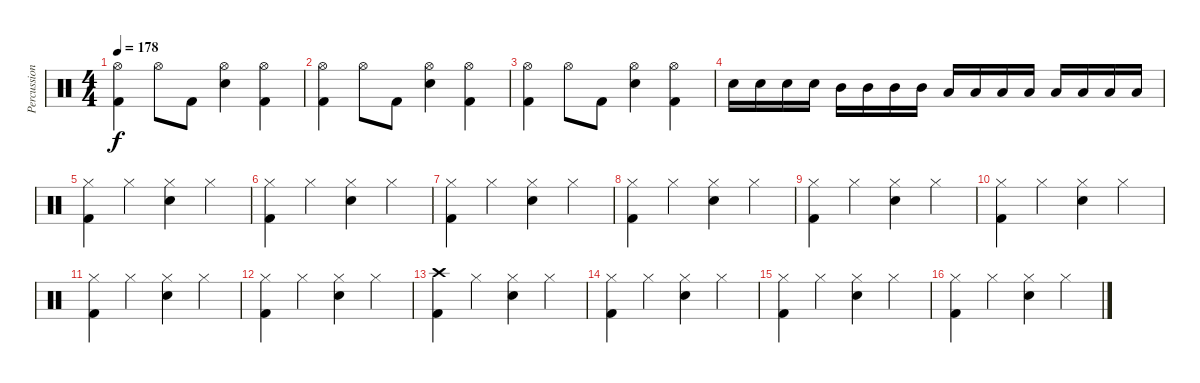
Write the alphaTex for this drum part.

\track ("Percussion" "Percussion") {instrument percussion}
\staff {score}
\articulation defaults
\ts (4 4)
\tempo 178
\clef neutral
\ks c
("Hi-Hat (open)" "Kick (hit) 2").4{dy f} "Hi-Hat (open)".8 "Kick (hit) 2".8 ("Hi-Hat (open)" "Electric Snare (hit)").4 ("Hi-Hat (open)" "Kick (hit) 2").4 |
("Hi-Hat (open)" "Kick (hit) 2").4 "Hi-Hat (open)".8 "Kick (hit) 2".8 ("Hi-Hat (open)" "Electric Snare (hit)").4 ("Hi-Hat (open)" "Kick (hit) 2").4 |
("Hi-Hat (open)" "Kick (hit) 2").4 "Hi-Hat (open)".8 "Kick (hit) 2".8 ("Hi-Hat (open)" "Electric Snare (hit)").4 ("Hi-Hat (open)" "Kick (hit) 2").4 |
"Electric Snare (hit)".16 "Electric Snare (hit)".16 "Electric Snare (hit)".16 "Electric Snare (hit)".16 "Mid Tom (hit)".16 "Mid Tom (hit)".16 "Mid Tom (hit)".16 "Mid Tom (hit)".16 "Low Tom (hit)".16 "Low Tom (hit)".16 "Low Tom (hit)".16 "Low Tom (hit)".16 "Low Floor Tom (hit)".16 "Low Floor Tom (hit)".16 "Low Floor Tom (hit)".16 "Low Floor Tom (hit)".16 |
("Hi-Hat (closed)" "Kick (hit) 2").4 "Hi-Hat (closed)".4 ("Hi-Hat (closed)" "Electric Snare (hit)").4 "Hi-Hat (closed)".4 |
("Hi-Hat (closed)" "Kick (hit) 2").4 "Hi-Hat (closed)".4 ("Hi-Hat (closed)" "Electric Snare (hit)").4 "Hi-Hat (closed)".4 |
("Hi-Hat (closed)" "Kick (hit) 2").4 "Hi-Hat (closed)".4 ("Hi-Hat (closed)" "Electric Snare (hit)").4 "Hi-Hat (closed)".4 |
("Hi-Hat (closed)" "Kick (hit) 2").4 "Hi-Hat (closed)".4 ("Hi-Hat (closed)" "Electric Snare (hit)").4 "Hi-Hat (closed)".4 |
("Hi-Hat (closed)" "Kick (hit) 2").4 "Hi-Hat (closed)".4 ("Hi-Hat (closed)" "Electric Snare (hit)").4 "Hi-Hat (closed)".4 |
("Hi-Hat (closed)" "Kick (hit) 2").4 "Hi-Hat (closed)".4 ("Hi-Hat (closed)" "Electric Snare (hit)").4 "Hi-Hat (closed)".4 |
("Hi-Hat (closed)" "Kick (hit) 2").4 "Hi-Hat (closed)".4 ("Hi-Hat (closed)" "Electric Snare (hit)").4 "Hi-Hat (closed)".4 |
("Hi-Hat (closed)" "Kick (hit) 2").4 "Hi-Hat (closed)".4 ("Hi-Hat (closed)" "Electric Snare (hit)").4 "Hi-Hat (closed)".4 |
("Crash high (hit)" "Kick (hit) 2").4 "Hi-Hat (closed)".4 ("Hi-Hat (closed)" "Electric Snare (hit)").4 "Hi-Hat (closed)".4 |
("Hi-Hat (closed)" "Kick (hit) 2").4 "Hi-Hat (closed)".4 ("Hi-Hat (closed)" "Electric Snare (hit)").4 "Hi-Hat (closed)".4 |
("Hi-Hat (closed)" "Kick (hit) 2").4 "Hi-Hat (closed)".4 ("Hi-Hat (closed)" "Electric Snare (hit)").4 "Hi-Hat (closed)".4 |
("Hi-Hat (closed)" "Kick (hit) 2").4 "Hi-Hat (closed)".4 ("Hi-Hat (closed)" "Electric Snare (hit)").4 "Hi-Hat (closed)".4
